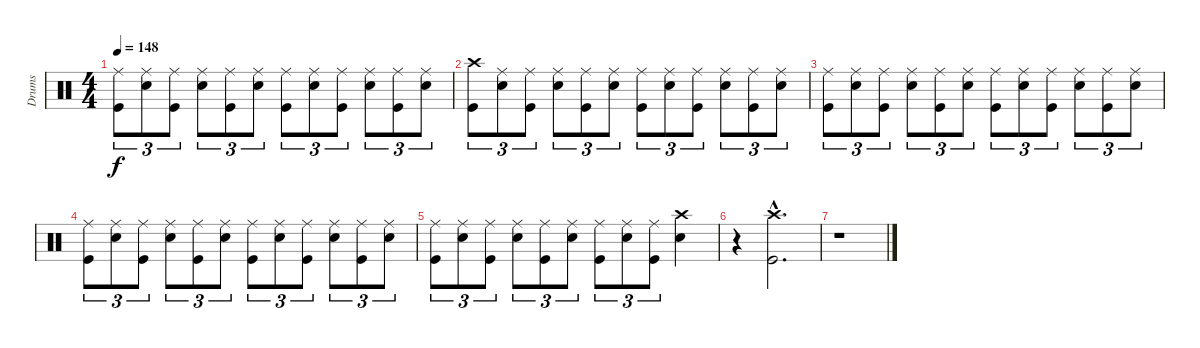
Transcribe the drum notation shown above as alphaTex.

\track ("Drums" "Drums") {instrument percussion}
\staff {score}
\articulation defaults
\ts (4 4)
\tempo 148
\clef neutral
\ks c
("Ride (middle)" "Kick (hit)").8{tu (3 2) dy f} ("Ride (middle)" "Electric Snare (hit)").8{tu (3 2)} ("Ride (middle)" "Kick (hit)").8{tu (3 2)} ("Ride (middle)" "Electric Snare (hit)").8{tu (3 2)} ("Ride (middle)" "Kick (hit)").8{tu (3 2)} ("Ride (middle)" "Electric Snare (hit)").8{tu (3 2)} ("Ride (middle)" "Kick (hit)").8{tu (3 2)} ("Ride (middle)" "Electric Snare (hit)").8{tu (3 2)} ("Ride (middle)" "Kick (hit)").8{tu (3 2)} ("Ride (middle)" "Electric Snare (hit)").8{tu (3 2)} ("Ride (middle)" "Kick (hit)").8{tu (3 2)} ("Ride (middle)" "Electric Snare (hit)").8{tu (3 2)} |
("Crash high (hit)" "Kick (hit)").8{tu (3 2)} ("Ride (middle)" "Electric Snare (hit)").8{tu (3 2)} ("Ride (middle)" "Kick (hit)").8{tu (3 2)} ("Ride (middle)" "Electric Snare (hit)").8{tu (3 2)} ("Ride (middle)" "Kick (hit)").8{tu (3 2)} ("Ride (middle)" "Electric Snare (hit)").8{tu (3 2)} ("Ride (middle)" "Kick (hit)").8{tu (3 2)} ("Ride (middle)" "Electric Snare (hit)").8{tu (3 2)} ("Ride (middle)" "Kick (hit)").8{tu (3 2)} ("Ride (middle)" "Electric Snare (hit)").8{tu (3 2)} ("Ride (middle)" "Kick (hit)").8{tu (3 2)} ("Ride (middle)" "Electric Snare (hit)").8{tu (3 2)} |
("Ride (middle)" "Kick (hit)").8{tu (3 2)} ("Ride (middle)" "Electric Snare (hit)").8{tu (3 2)} ("Ride (middle)" "Kick (hit)").8{tu (3 2)} ("Ride (middle)" "Electric Snare (hit)").8{tu (3 2)} ("Ride (middle)" "Kick (hit)").8{tu (3 2)} ("Ride (middle)" "Electric Snare (hit)").8{tu (3 2)} ("Ride (middle)" "Kick (hit)").8{tu (3 2)} ("Ride (middle)" "Electric Snare (hit)").8{tu (3 2)} ("Ride (middle)" "Kick (hit)").8{tu (3 2)} ("Ride (middle)" "Electric Snare (hit)").8{tu (3 2)} ("Ride (middle)" "Kick (hit)").8{tu (3 2)} ("Ride (middle)" "Electric Snare (hit)").8{tu (3 2)} |
("Ride (middle)" "Kick (hit)").8{tu (3 2)} ("Ride (middle)" "Electric Snare (hit)").8{tu (3 2)} ("Ride (middle)" "Kick (hit)").8{tu (3 2)} ("Ride (middle)" "Electric Snare (hit)").8{tu (3 2)} ("Ride (middle)" "Kick (hit)").8{tu (3 2)} ("Ride (middle)" "Electric Snare (hit)").8{tu (3 2)} ("Ride (middle)" "Kick (hit)").8{tu (3 2)} ("Ride (middle)" "Electric Snare (hit)").8{tu (3 2)} ("Ride (middle)" "Kick (hit)").8{tu (3 2)} ("Ride (middle)" "Electric Snare (hit)").8{tu (3 2)} ("Ride (middle)" "Kick (hit)").8{tu (3 2)} ("Ride (middle)" "Electric Snare (hit)").8{tu (3 2)} |
("Ride (middle)" "Kick (hit)").8{tu (3 2)} ("Ride (middle)" "Electric Snare (hit)").8{tu (3 2)} ("Ride (middle)" "Kick (hit)").8{tu (3 2)} ("Ride (middle)" "Electric Snare (hit)").8{tu (3 2)} ("Ride (middle)" "Kick (hit)").8{tu (3 2)} ("Ride (middle)" "Electric Snare (hit)").8{tu (3 2)} ("Ride (middle)" "Kick (hit)").8{tu (3 2)} ("Ride (middle)" "Electric Snare (hit)").8{tu (3 2)} ("Ride (middle)" "Kick (hit)").8{tu (3 2)} ("Crash high (hit)" "Electric Snare (hit)").4 |
r.4 ("Crash high (hit)"{hac} "Kick (hit)"{hac}).2{d} |
r.1
